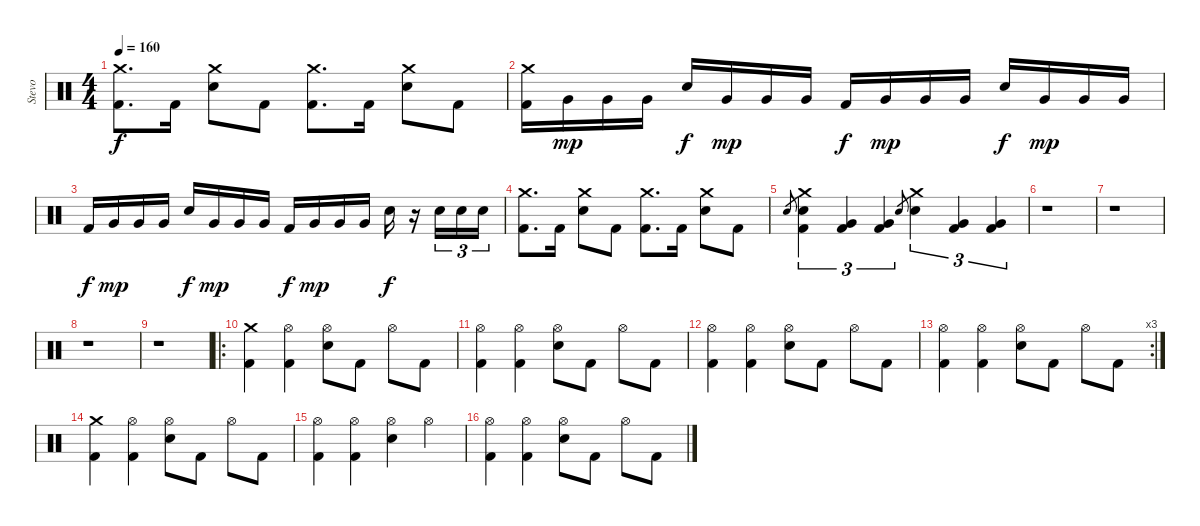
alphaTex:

\track ("Stevo" "Stevo") {instrument percussion}
\staff {score}
\articulation defaults
\ts (4 4)
\tempo 160
\clef neutral
\ks c
("Crash medium (hit)" "Kick (hit) 2").8{d dy f} "Kick (hit) 2".16 ("Crash medium (hit)" "Electric Snare (hit)").8 "Kick (hit) 2".8 ("Crash medium (hit)" "Kick (hit) 2").8{d} "Kick (hit) 2".16 ("Crash medium (hit)" "Electric Snare (hit)").8 "Kick (hit) 2".8 |
("Crash medium (hit)" "Kick (hit) 2").16 "Very Low Tom (hit)".16{dy mp} "Very Low Tom (hit)".16 "Very Low Tom (hit)".16 "Electric Snare (hit)".16{dy f} "Very Low Tom (hit)".16{dy mp} "Very Low Tom (hit)".16 "Very Low Tom (hit)".16 "Kick (hit) 2".16{dy f} "Very Low Tom (hit)".16{dy mp} "Very Low Tom (hit)".16 "Very Low Tom (hit)".16 "Electric Snare (hit)".16{dy f} "Very Low Tom (hit)".16{dy mp} "Very Low Tom (hit)".16 "Very Low Tom (hit)".16 |
"Kick (hit) 2".16{dy f} "Very Low Tom (hit)".16{dy mp} "Very Low Tom (hit)".16 "Very Low Tom (hit)".16 "Electric Snare (hit)".16{dy f} "Very Low Tom (hit)".16{dy mp} "Very Low Tom (hit)".16 "Very Low Tom (hit)".16 "Kick (hit) 2".16{dy f} "Very Low Tom (hit)".16{dy mp} "Very Low Tom (hit)".16 "Very Low Tom (hit)".16 "Electric Snare (hit)".16{dy f} r.16 "Electric Snare (hit)".16{tu (3 2)} "Electric Snare (hit)".16{tu (3 2)} "Electric Snare (hit)".16{tu (3 2)} |
("Crash medium (hit)" "Kick (hit) 2").8{d} "Kick (hit) 2".16 ("Crash medium (hit)" "Electric Snare (hit)").8 "Kick (hit) 2".8 ("Crash medium (hit)" "Kick (hit) 2").8{d} "Kick (hit) 2".16 ("Crash medium (hit)" "Electric Snare (hit)").8 "Kick (hit) 2".8 |
"Electric Snare (hit)".8{gr} ("Crash medium (hit)" "Electric Snare (hit)" "Kick (hit) 2").4{tu (3 2)} ("Very Low Tom (hit)" "Kick (hit) 2").4{tu (3 2)} ("Very Low Tom (hit)" "Kick (hit) 2").4{tu (3 2)} "Electric Snare (hit)".8{gr} ("Crash medium (hit)" "Electric Snare (hit)").4{tu (3 2)} ("Very Low Tom (hit)" "Kick (hit) 2").4{tu (3 2)} ("Very Low Tom (hit)" "Kick (hit) 2").4{tu (3 2)} |
r.1 |
r.1 |
r.1 |
r.1 |
\ro
("Crash medium (hit)" "Kick (hit) 2").4 ("Hi-Hat (open)" "Kick (hit) 2").4 ("Electric Snare (hit)" "Hi-Hat (open)").8 "Kick (hit) 2".8 "Hi-Hat (open)".8 "Kick (hit) 2".8 |
("Hi-Hat (open)" "Kick (hit) 2").4 ("Hi-Hat (open)" "Kick (hit) 2").4 ("Electric Snare (hit)" "Hi-Hat (open)").8 "Kick (hit) 2".8 "Hi-Hat (open)".8 "Kick (hit) 2".8 |
("Hi-Hat (open)" "Kick (hit) 2").4 ("Hi-Hat (open)" "Kick (hit) 2").4 ("Electric Snare (hit)" "Hi-Hat (open)").8 "Kick (hit) 2".8 "Hi-Hat (open)".8 "Kick (hit) 2".8 |
\rc 3
("Hi-Hat (open)" "Kick (hit) 2").4 ("Hi-Hat (open)" "Kick (hit) 2").4 ("Electric Snare (hit)" "Hi-Hat (open)").8 "Kick (hit) 2".8 "Hi-Hat (open)".8 "Kick (hit) 2".8 |
("Crash medium (hit)" "Kick (hit) 2").4 ("Hi-Hat (open)" "Kick (hit) 2").4 ("Electric Snare (hit)" "Hi-Hat (open)").8 "Kick (hit) 2".8 "Hi-Hat (open)".8 "Kick (hit) 2".8 |
("Hi-Hat (open)" "Kick (hit) 2").4 ("Hi-Hat (open)" "Kick (hit) 2").4 ("Electric Snare (hit)" "Hi-Hat (open)").4 "Hi-Hat (open)".4 |
("Hi-Hat (open)" "Kick (hit) 2").4 ("Hi-Hat (open)" "Kick (hit) 2").4 ("Electric Snare (hit)" "Hi-Hat (open)").8 "Kick (hit) 2".8 "Hi-Hat (open)".8 "Kick (hit) 2".8
